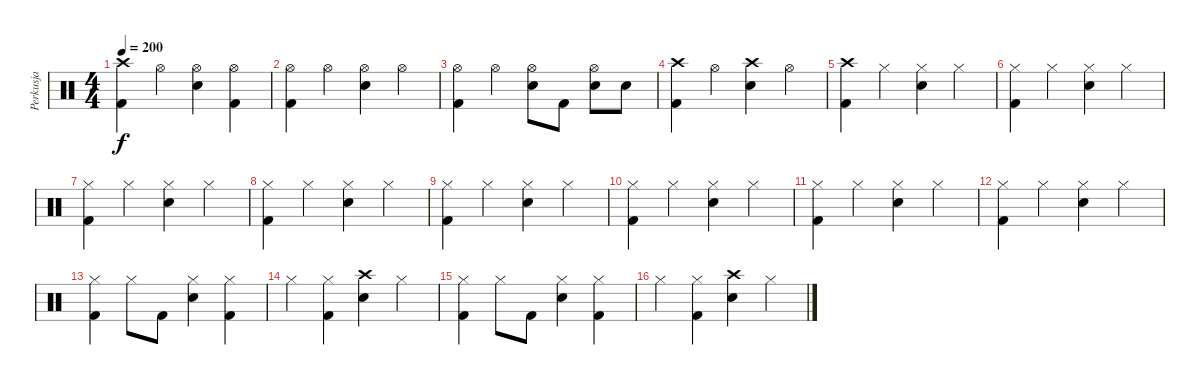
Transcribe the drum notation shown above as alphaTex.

\track ("Perkusja" "Perkusja") {instrument percussion}
\staff {score}
\articulation defaults
\ts (4 4)
\tempo 200
\clef neutral
\ks c
("Crash high (hit)" "Kick (hit) 2").4{dy f} "Hi-Hat (open)".4 ("Hi-Hat (open)" "Snare (hit) 2").4 ("Hi-Hat (open)" "Kick (hit) 2").4 |
("Hi-Hat (open)" "Kick (hit) 2").4 "Hi-Hat (open)".4 ("Hi-Hat (open)" "Snare (hit) 2").4 "Hi-Hat (open)".4 |
("Hi-Hat (open)" "Kick (hit) 2").4 "Hi-Hat (open)".4 ("Hi-Hat (open)" "Snare (hit) 2").8 "Kick (hit) 2".8 ("Hi-Hat (open)" "Electric Snare (hit)").8 "Electric Snare (hit)".8 |
("Crash high (hit)" "Kick (hit) 2").4 "Hi-Hat (open)".4 ("Crash high (hit)" "Snare (hit) 2").4 "Hi-Hat (open)".4 |
("Crash high (hit)" "Kick (hit) 2").4 "Hi-Hat (closed)".4 ("Hi-Hat (closed)" "Snare (hit) 2").4 "Hi-Hat (closed)".4 |
("Hi-Hat (closed)" "Kick (hit) 2").4 "Hi-Hat (closed)".4 ("Hi-Hat (closed)" "Snare (hit) 2").4 "Hi-Hat (closed)".4 |
("Hi-Hat (closed)" "Kick (hit) 2").4 "Hi-Hat (closed)".4 ("Hi-Hat (closed)" "Snare (hit) 2").4 "Hi-Hat (closed)".4 |
("Hi-Hat (closed)" "Kick (hit) 2").4 "Hi-Hat (closed)".4 ("Hi-Hat (closed)" "Snare (hit) 2").4 "Hi-Hat (closed)".4 |
("Hi-Hat (closed)" "Kick (hit) 2").4 "Hi-Hat (closed)".4 ("Hi-Hat (closed)" "Snare (hit) 2").4 "Hi-Hat (closed)".4 |
("Hi-Hat (closed)" "Kick (hit) 2").4 "Hi-Hat (closed)".4 ("Hi-Hat (closed)" "Snare (hit) 2").4 "Hi-Hat (closed)".4 |
("Hi-Hat (closed)" "Kick (hit) 2").4 "Hi-Hat (closed)".4 ("Hi-Hat (closed)" "Snare (hit) 2").4 "Hi-Hat (closed)".4 |
("Hi-Hat (closed)" "Kick (hit) 2").4 "Hi-Hat (closed)".4 ("Hi-Hat (closed)" "Snare (hit) 2").4 "Hi-Hat (closed)".4 |
("Hi-Hat (closed)" "Kick (hit) 2").4 "Hi-Hat (closed)".8 "Kick (hit) 2".8 ("Hi-Hat (closed)" "Snare (hit) 2").4 ("Hi-Hat (closed)" "Kick (hit) 2").4 |
"Hi-Hat (closed)".4 ("Hi-Hat (closed)" "Kick (hit) 2").4 ("Crash high (hit)" "Snare (hit) 2").4 "Hi-Hat (closed)".4 |
("Hi-Hat (closed)" "Kick (hit) 2").4 "Hi-Hat (closed)".8 "Kick (hit) 2".8 ("Hi-Hat (closed)" "Snare (hit) 2").4 ("Hi-Hat (closed)" "Kick (hit) 2").4 |
"Hi-Hat (closed)".4 ("Hi-Hat (closed)" "Kick (hit) 2").4 ("Crash high (hit)" "Snare (hit) 2").4 "Hi-Hat (closed)".4
